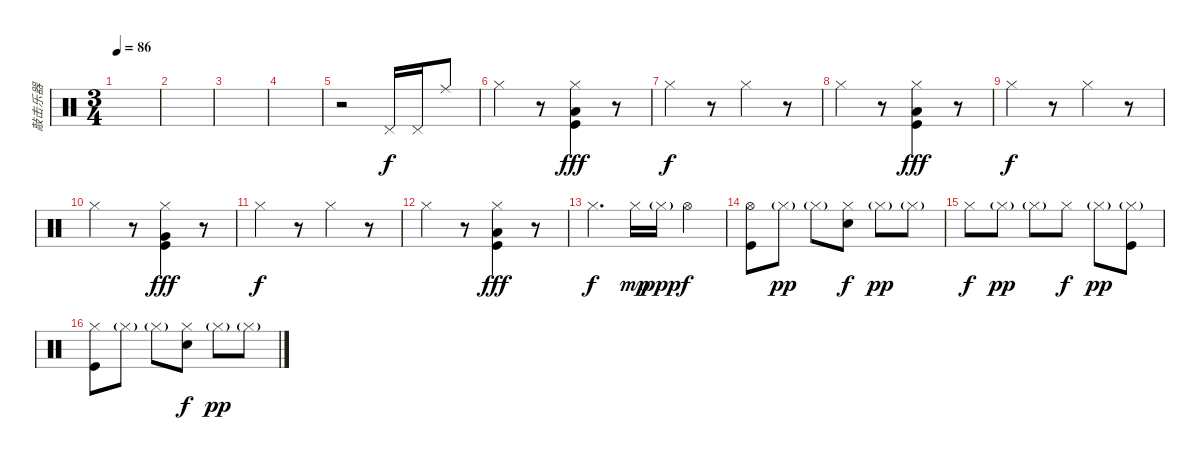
\track ("敲击乐器" "敲击乐器") {instrument percussion}
\staff {score}
\articulation defaults
\ts (3 4)
\tempo 86
\clef neutral
\ks c
|
|
|
|
r.2 "Pedal Hi-Hat (hit)".16 "Pedal Hi-Hat (hit)".16 "Ride (middle)".8 |
"Hi-Hat (closed)".4 r.8 ("Hi-Hat (closed)" "Low Tom (hit)" "Kick (hit)").4{dy fff} r.8 |
"Hi-Hat (closed)".4{dy f} r.8 "Hi-Hat (closed)".4 r.8 |
"Hi-Hat (closed)".4 r.8 ("Hi-Hat (closed)" "Low Tom (hit)" "Kick (hit)").4{dy fff} r.8 |
"Hi-Hat (closed)".4{dy f} r.8 "Hi-Hat (closed)".4 r.8 |
"Hi-Hat (closed)".4 r.8 ("Hi-Hat (closed)" "Very Low Tom (hit)" "Kick (hit)").4{dy fff} r.8 |
"Hi-Hat (closed)".4{dy f} r.8 "Hi-Hat (closed)".4 r.8 |
"Hi-Hat (closed)".4 r.8 ("Hi-Hat (closed)" "Low Floor Tom (hit)" "Kick (hit)").4{dy fff} r.8 |
"Hi-Hat (closed)".4{d dy f} "Hi-Hat (closed)".16{dy mp} "Hi-Hat (closed)"{g}.16{dy ppp} "Hi-Hat (open)".4{dy f} |
("Hi-Hat (open)" "Kick (hit)").8 "Hi-Hat (closed)"{g}.8{dy pp} "Hi-Hat (closed)"{g}.8 ("Hi-Hat (closed)" "Snare (hit) 2").8{dy f} "Hi-Hat (closed)"{g}.8{dy pp} "Hi-Hat (closed)"{g}.8 |
"Hi-Hat (closed)".8{dy f} "Hi-Hat (closed)"{g}.8{dy pp} "Hi-Hat (closed)"{g}.8 "Hi-Hat (closed)".8{dy f} "Hi-Hat (closed)"{g}.8{dy pp} ("Hi-Hat (closed)"{g} "Kick (hit)").8 |
("Hi-Hat (closed)" "Kick (hit)").8 "Hi-Hat (closed)"{g}.8 "Hi-Hat (closed)"{g}.8 ("Hi-Hat (closed)" "Snare (hit) 2").8{dy f} "Hi-Hat (closed)"{g}.8{dy pp} "Hi-Hat (closed)"{g}.8
